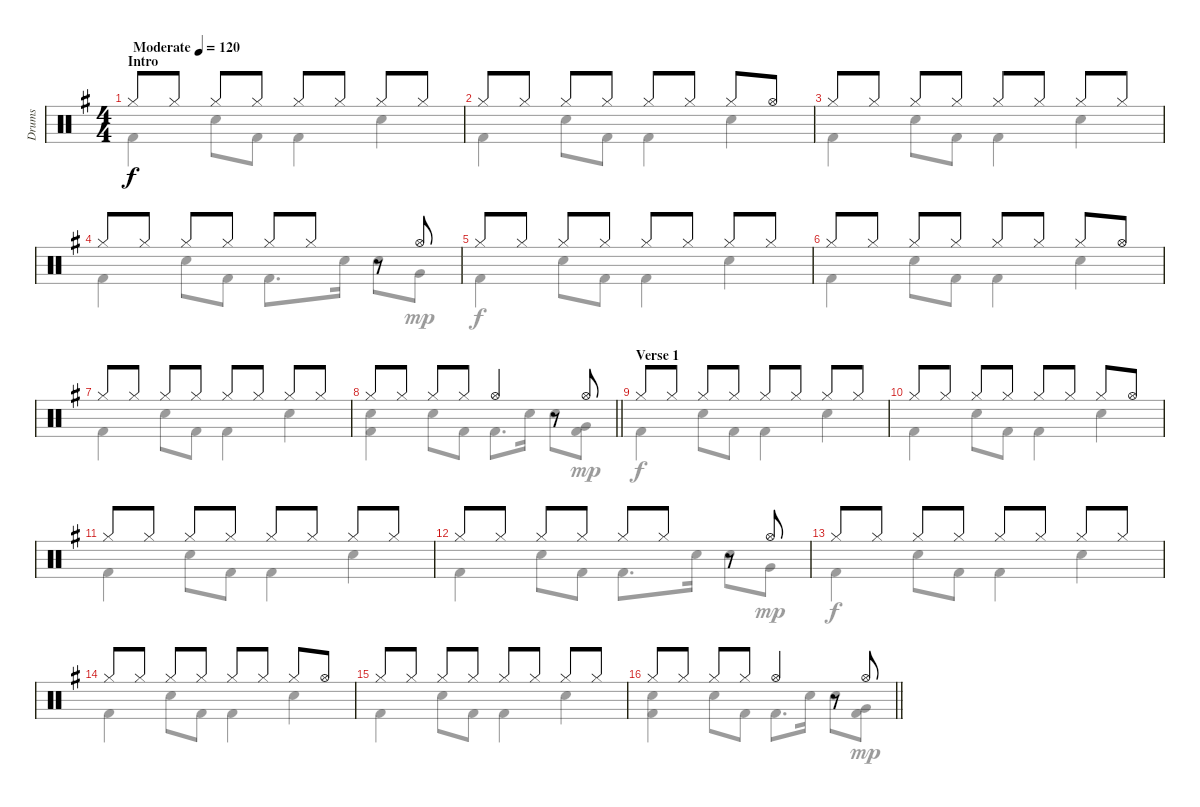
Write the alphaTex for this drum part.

\track ("Drums" "Drums") {instrument percussion}
\staff {score}
\articulation defaults
\voice
\ts (4 4)
\section ("" "Intro")
\tempo (120 "Moderate")
\clef neutral
\ks g "Hi-Hat (closed)".8{dy f} "Hi-Hat (closed)".8 "Hi-Hat (closed)".8 "Hi-Hat (closed)".8 "Hi-Hat (closed)".8 "Hi-Hat (closed)".8 "Hi-Hat (closed)".8 "Hi-Hat (closed)".8
|
"Hi-Hat (closed)".8 "Hi-Hat (closed)".8 "Hi-Hat (closed)".8 "Hi-Hat (closed)".8 "Hi-Hat (closed)".8 "Hi-Hat (closed)".8 "Hi-Hat (closed)".8 "Hi-Hat (open)".8 |
"Hi-Hat (closed)".8 "Hi-Hat (closed)".8 "Hi-Hat (closed)".8 "Hi-Hat (closed)".8 "Hi-Hat (closed)".8 "Hi-Hat (closed)".8 "Hi-Hat (closed)".8 "Hi-Hat (closed)".8 |
"Hi-Hat (closed)".8 "Hi-Hat (closed)".8 "Hi-Hat (closed)".8 "Hi-Hat (closed)".8 "Hi-Hat (closed)".8 "Hi-Hat (closed)".8 r.8 "Hi-Hat (open)".8 |
"Hi-Hat (closed)".8 "Hi-Hat (closed)".8 "Hi-Hat (closed)".8 "Hi-Hat (closed)".8 "Hi-Hat (closed)".8 "Hi-Hat (closed)".8 "Hi-Hat (closed)".8 "Hi-Hat (closed)".8 |
"Hi-Hat (closed)".8 "Hi-Hat (closed)".8 "Hi-Hat (closed)".8 "Hi-Hat (closed)".8 "Hi-Hat (closed)".8 "Hi-Hat (closed)".8 "Hi-Hat (closed)".8 "Hi-Hat (open)".8 |
"Hi-Hat (closed)".8 "Hi-Hat (closed)".8 "Hi-Hat (closed)".8 "Hi-Hat (closed)".8 "Hi-Hat (closed)".8 "Hi-Hat (closed)".8 "Hi-Hat (closed)".8 "Hi-Hat (closed)".8 |
\barLineRight lightlight "Hi-Hat (closed)".8 "Hi-Hat (closed)".8 "Hi-Hat (closed)".8 "Hi-Hat (closed)".8 "Hi-Hat (open)".4
r.8 "Hi-Hat (open)".8 |
\section ("" "Verse 1")
"Hi-Hat (closed)".8 "Hi-Hat (closed)".8 "Hi-Hat (closed)".8 "Hi-Hat (closed)".8 "Hi-Hat (closed)".8 "Hi-Hat (closed)".8 "Hi-Hat (closed)".8 "Hi-Hat (closed)".8 |
"Hi-Hat (closed)".8 "Hi-Hat (closed)".8 "Hi-Hat (closed)".8 "Hi-Hat (closed)".8 "Hi-Hat (closed)".8 "Hi-Hat (closed)".8 "Hi-Hat (closed)".8 "Hi-Hat (open)".8 |
"Hi-Hat (closed)".8 "Hi-Hat (closed)".8 "Hi-Hat (closed)".8 "Hi-Hat (closed)".8 "Hi-Hat (closed)".8 "Hi-Hat (closed)".8 "Hi-Hat (closed)".8 "Hi-Hat (closed)".8 |
"Hi-Hat (closed)".8 "Hi-Hat (closed)".8 "Hi-Hat (closed)".8 "Hi-Hat (closed)".8 "Hi-Hat (closed)".8 "Hi-Hat (closed)".8 r.8 "Hi-Hat (open)".8 |
"Hi-Hat (closed)".8 "Hi-Hat (closed)".8 "Hi-Hat (closed)".8 "Hi-Hat (closed)".8 "Hi-Hat (closed)".8 "Hi-Hat (closed)".8 "Hi-Hat (closed)".8 "Hi-Hat (closed)".8 |
"Hi-Hat (closed)".8 "Hi-Hat (closed)".8 "Hi-Hat (closed)".8 "Hi-Hat (closed)".8 "Hi-Hat (closed)".8 "Hi-Hat (closed)".8 "Hi-Hat (closed)".8 "Hi-Hat (open)".8 |
"Hi-Hat (closed)".8 "Hi-Hat (closed)".8 "Hi-Hat (closed)".8 "Hi-Hat (closed)".8 "Hi-Hat (closed)".8 "Hi-Hat (closed)".8 "Hi-Hat (closed)".8 "Hi-Hat (closed)".8 |
\barLineRight lightlight "Hi-Hat (closed)".8 "Hi-Hat (closed)".8 "Hi-Hat (closed)".8 "Hi-Hat (closed)".8 "Hi-Hat (open)".4
r.8 "Hi-Hat (open)".8
\voice
\clef neutral
\ottava regular
\simile none
\ks g "Kick (hit) 2".4{dy f} "Electric Snare (hit)".8 "Kick (hit) 2".8 "Kick (hit) 2".4 "Electric Snare (hit)".4
|
"Kick (hit) 2".4 "Electric Snare (hit)".8 "Kick (hit) 2".8 "Kick (hit) 2".4 "Electric Snare (hit)".4 |
"Kick (hit) 2".4 "Electric Snare (hit)".8 "Kick (hit) 2".8 "Kick (hit) 2".4 "Electric Snare (hit)".4 |
"Kick (hit) 2".4 "Electric Snare (hit)".8 "Kick (hit) 2".8 "Kick (hit) 2".8{d} "Electric Snare (hit)".16 "Electric Snare (hit)".8 "Very Low Tom (hit)".8{dy mp} |
"Kick (hit) 2".4{dy f} "Electric Snare (hit)".8 "Kick (hit) 2".8 "Kick (hit) 2".4 "Electric Snare (hit)".4 |
"Kick (hit) 2".4 "Electric Snare (hit)".8 "Kick (hit) 2".8 "Kick (hit) 2".4 "Electric Snare (hit)".4 |
"Kick (hit) 2".4 "Electric Snare (hit)".8 "Kick (hit) 2".8 "Kick (hit) 2".4 "Electric Snare (hit)".4 |
\barLineRight lightlight
("Electric Snare (hit)" "Kick (hit) 2").4 "Electric Snare (hit)".8 "Kick (hit) 2".8 "Kick (hit) 2".8{d} "Electric Snare (hit)".16 "Electric Snare (hit)".8 ("Very Low Tom (hit)" "Kick (hit) 2").8{dy mp} |
"Kick (hit) 2".4{dy f} "Electric Snare (hit)".8 "Kick (hit) 2".8 "Kick (hit) 2".4 "Electric Snare (hit)".4 |
"Kick (hit) 2".4 "Electric Snare (hit)".8 "Kick (hit) 2".8 "Kick (hit) 2".4 "Electric Snare (hit)".4 |
"Kick (hit) 2".4 "Electric Snare (hit)".8 "Kick (hit) 2".8 "Kick (hit) 2".4 "Electric Snare (hit)".4 |
"Kick (hit) 2".4 "Electric Snare (hit)".8 "Kick (hit) 2".8 "Kick (hit) 2".8{d} "Electric Snare (hit)".16 "Electric Snare (hit)".8 "Very Low Tom (hit)".8{dy mp} |
"Kick (hit) 2".4{dy f} "Electric Snare (hit)".8 "Kick (hit) 2".8 "Kick (hit) 2".4 "Electric Snare (hit)".4 |
"Kick (hit) 2".4 "Electric Snare (hit)".8 "Kick (hit) 2".8 "Kick (hit) 2".4 "Electric Snare (hit)".4 |
"Kick (hit) 2".4 "Electric Snare (hit)".8 "Kick (hit) 2".8 "Kick (hit) 2".4 "Electric Snare (hit)".4 |
\barLineRight lightlight
("Electric Snare (hit)" "Kick (hit) 2").4 "Electric Snare (hit)".8 "Kick (hit) 2".8 "Kick (hit) 2".8{d} "Electric Snare (hit)".16 "Electric Snare (hit)".8 ("Very Low Tom (hit)" "Kick (hit) 2").8{dy mp}
